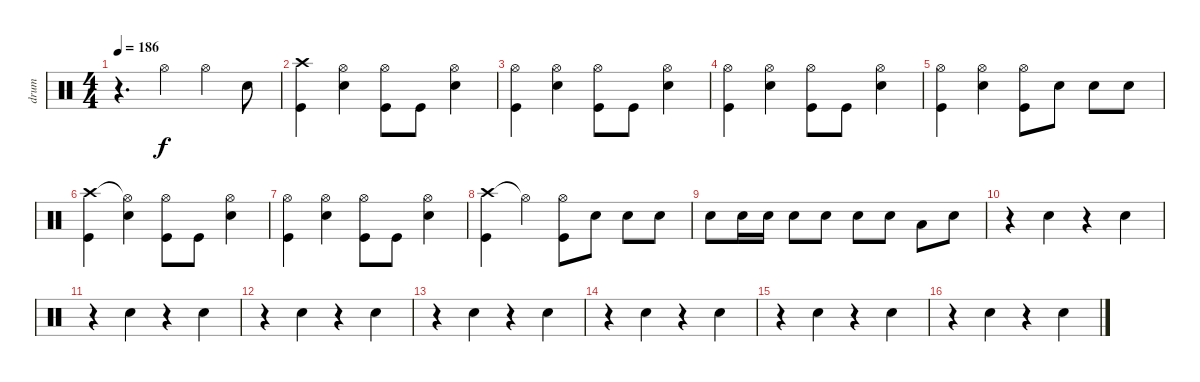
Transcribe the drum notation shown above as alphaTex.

\track ("drum" "drum") {instrument percussion}
\staff {score}
\articulation defaults
\ts (4 4)
\tempo 186
\clef neutral
\ks c
r.4{d dy f} "Hi-Hat (open)".4 "Hi-Hat (open)".4 "Snare (hit) 2".8 |
("Crash high (hit)" "Kick (hit)").4 ("Hi-Hat (open)" "Snare (hit) 2").4 ("Hi-Hat (open)" "Kick (hit)").8 "Kick (hit)".8 ("Hi-Hat (open)" "Snare (hit) 2").4 |
("Hi-Hat (open)" "Kick (hit)").4 ("Hi-Hat (open)" "Snare (hit) 2").4 ("Hi-Hat (open)" "Kick (hit)").8 "Kick (hit)".8 ("Hi-Hat (open)" "Snare (hit) 2").4 |
("Hi-Hat (open)" "Kick (hit)").4 ("Hi-Hat (open)" "Snare (hit) 2").4 ("Hi-Hat (open)" "Kick (hit)").8 "Kick (hit)".8 ("Hi-Hat (open)" "Snare (hit) 2").4 |
("Hi-Hat (open)" "Kick (hit)").4 ("Hi-Hat (open)" "Snare (hit) 2").4 ("Hi-Hat (open)" "Kick (hit)").8 "Snare (hit) 2".8 "Snare (hit) 2".8 "Snare (hit) 2".8 |
("Crash high (hit)" "Kick (hit)").4 ("Hi-Hat (open)"{t} "Snare (hit) 2").4 ("Hi-Hat (open)" "Kick (hit)").8 "Kick (hit)".8 ("Hi-Hat (open)" "Snare (hit) 2").4 |
("Hi-Hat (open)" "Kick (hit)").4 ("Hi-Hat (open)" "Snare (hit) 2").4 ("Hi-Hat (open)" "Kick (hit)").8 "Kick (hit)".8 ("Hi-Hat (open)" "Snare (hit) 2").4 |
("Crash high (hit)" "Kick (hit)").4 "Hi-Hat (open)"{t}.4 ("Hi-Hat (open)" "Kick (hit)").8 "Snare (hit) 2".8 "Snare (hit) 2".8 "Snare (hit) 2".8 |
"Snare (hit) 2".8 "Snare (hit) 2".16 "Snare (hit) 2".16 "Snare (hit) 2".8 "Snare (hit) 2".8 "Snare (hit) 2".8 "Snare (hit) 2".8 "Low Tom (hit)".8 "Snare (hit) 2".8 |
r.4 "Snare (hit) 2".4 r.4 "Snare (hit) 2".4 |
r.4 "Snare (hit) 2".4 r.4 "Snare (hit) 2".4 |
r.4 "Snare (hit) 2".4 r.4 "Snare (hit) 2".4 |
r.4 "Snare (hit) 2".4 r.4 "Snare (hit) 2".4 |
r.4 "Snare (hit) 2".4 r.4 "Snare (hit) 2".4 |
r.4 "Snare (hit) 2".4 r.4 "Snare (hit) 2".4 |
r.4 "Snare (hit) 2".4 r.4 "Snare (hit) 2".4
